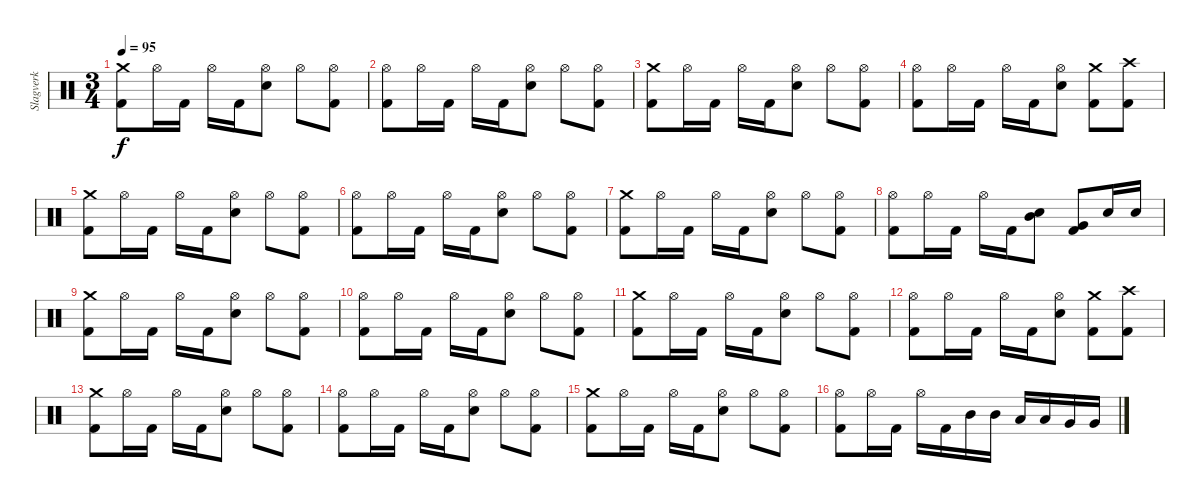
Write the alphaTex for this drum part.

\track ("Slagverk" "Slagverk") {instrument percussion}
\staff {score}
\articulation defaults
\ts (3 4)
\tempo 95
\clef neutral
\ks c
("Crash medium (hit)" "Kick (hit) 2").8{dy f} "Hi-Hat (open)".16 "Kick (hit) 2".16 "Hi-Hat (open)".16 "Kick (hit) 2".16 ("Hi-Hat (open)" "Electric Snare (hit)").8 "Hi-Hat (open)".8 ("Hi-Hat (open)" "Kick (hit) 2").8 |
("Hi-Hat (open)" "Kick (hit) 2").8 "Hi-Hat (open)".16 "Kick (hit) 2".16 "Hi-Hat (open)".16 "Kick (hit) 2".16 ("Hi-Hat (open)" "Electric Snare (hit)").8 "Hi-Hat (open)".8 ("Hi-Hat (open)" "Kick (hit) 2").8 |
("Crash medium (hit)" "Kick (hit) 2").8 "Hi-Hat (open)".16 "Kick (hit) 2".16 "Hi-Hat (open)".16 "Kick (hit) 2".16 ("Hi-Hat (open)" "Electric Snare (hit)").8 "Hi-Hat (open)".8 ("Hi-Hat (open)" "Kick (hit) 2").8 |
("Hi-Hat (open)" "Kick (hit) 2").8 "Hi-Hat (open)".16 "Kick (hit) 2".16 "Hi-Hat (open)".16 "Kick (hit) 2".16 ("Hi-Hat (open)" "Electric Snare (hit)").8 ("Crash medium (hit)" "Kick (hit) 2").8 ("Crash high (hit)" "Kick (hit) 2").8 |
("Crash medium (hit)" "Kick (hit) 2").8 "Hi-Hat (open)".16 "Kick (hit) 2".16 "Hi-Hat (open)".16 "Kick (hit) 2".16 ("Hi-Hat (open)" "Electric Snare (hit)").8 "Hi-Hat (open)".8 ("Hi-Hat (open)" "Kick (hit) 2").8 |
("Hi-Hat (open)" "Kick (hit) 2").8 "Hi-Hat (open)".16 "Kick (hit) 2".16 "Hi-Hat (open)".16 "Kick (hit) 2".16 ("Hi-Hat (open)" "Electric Snare (hit)").8 "Hi-Hat (open)".8 ("Hi-Hat (open)" "Kick (hit) 2").8 |
("Crash medium (hit)" "Kick (hit) 2").8 "Hi-Hat (open)".16 "Kick (hit) 2".16 "Hi-Hat (open)".16 "Kick (hit) 2".16 ("Hi-Hat (open)" "Electric Snare (hit)").8 "Hi-Hat (open)".8 ("Hi-Hat (open)" "Kick (hit) 2").8 |
("Hi-Hat (open)" "Kick (hit) 2").8 "Hi-Hat (open)".16 "Kick (hit) 2".16 "Hi-Hat (open)".16 "Kick (hit) 2".16 ("Electric Snare (hit)" "Mid Tom (hit)").8 ("Very Low Tom (hit)" "Kick (hit) 2").8 "Electric Snare (hit)".16 "Electric Snare (hit)".16 |
("Crash medium (hit)" "Kick (hit) 2").8 "Hi-Hat (open)".16 "Kick (hit) 2".16 "Hi-Hat (open)".16 "Kick (hit) 2".16 ("Hi-Hat (open)" "Electric Snare (hit)").8 "Hi-Hat (open)".8 ("Hi-Hat (open)" "Kick (hit) 2").8 |
("Hi-Hat (open)" "Kick (hit) 2").8 "Hi-Hat (open)".16 "Kick (hit) 2".16 "Hi-Hat (open)".16 "Kick (hit) 2".16 ("Hi-Hat (open)" "Electric Snare (hit)").8 "Hi-Hat (open)".8 ("Hi-Hat (open)" "Kick (hit) 2").8 |
("Crash medium (hit)" "Kick (hit) 2").8 "Hi-Hat (open)".16 "Kick (hit) 2".16 "Hi-Hat (open)".16 "Kick (hit) 2".16 ("Hi-Hat (open)" "Electric Snare (hit)").8 "Hi-Hat (open)".8 ("Hi-Hat (open)" "Kick (hit) 2").8 |
("Hi-Hat (open)" "Kick (hit) 2").8 "Hi-Hat (open)".16 "Kick (hit) 2".16 "Hi-Hat (open)".16 "Kick (hit) 2".16 ("Hi-Hat (open)" "Electric Snare (hit)").8 ("Crash medium (hit)" "Kick (hit) 2").8 ("Crash high (hit)" "Kick (hit) 2").8 |
("Crash medium (hit)" "Kick (hit) 2").8 "Hi-Hat (open)".16 "Kick (hit) 2".16 "Hi-Hat (open)".16 "Kick (hit) 2".16 ("Hi-Hat (open)" "Electric Snare (hit)").8 "Hi-Hat (open)".8 ("Hi-Hat (open)" "Kick (hit) 2").8 |
("Hi-Hat (open)" "Kick (hit) 2").8 "Hi-Hat (open)".16 "Kick (hit) 2".16 "Hi-Hat (open)".16 "Kick (hit) 2".16 ("Hi-Hat (open)" "Electric Snare (hit)").8 "Hi-Hat (open)".8 ("Hi-Hat (open)" "Kick (hit) 2").8 |
("Crash medium (hit)" "Kick (hit) 2").8 "Hi-Hat (open)".16 "Kick (hit) 2".16 "Hi-Hat (open)".16 "Kick (hit) 2".16 ("Hi-Hat (open)" "Electric Snare (hit)").8 "Hi-Hat (open)".8 ("Hi-Hat (open)" "Kick (hit) 2").8 |
("Hi-Hat (open)" "Kick (hit) 2").8 "Hi-Hat (open)".16 "Kick (hit) 2".16 "Hi-Hat (open)".16 "Kick (hit) 2".16 "Mid Tom (hit)".16 "Mid Tom (hit)".16 "Low Tom (hit)".16 "Low Tom (hit)".16 "Very Low Tom (hit)".16 "Very Low Tom (hit)".16
